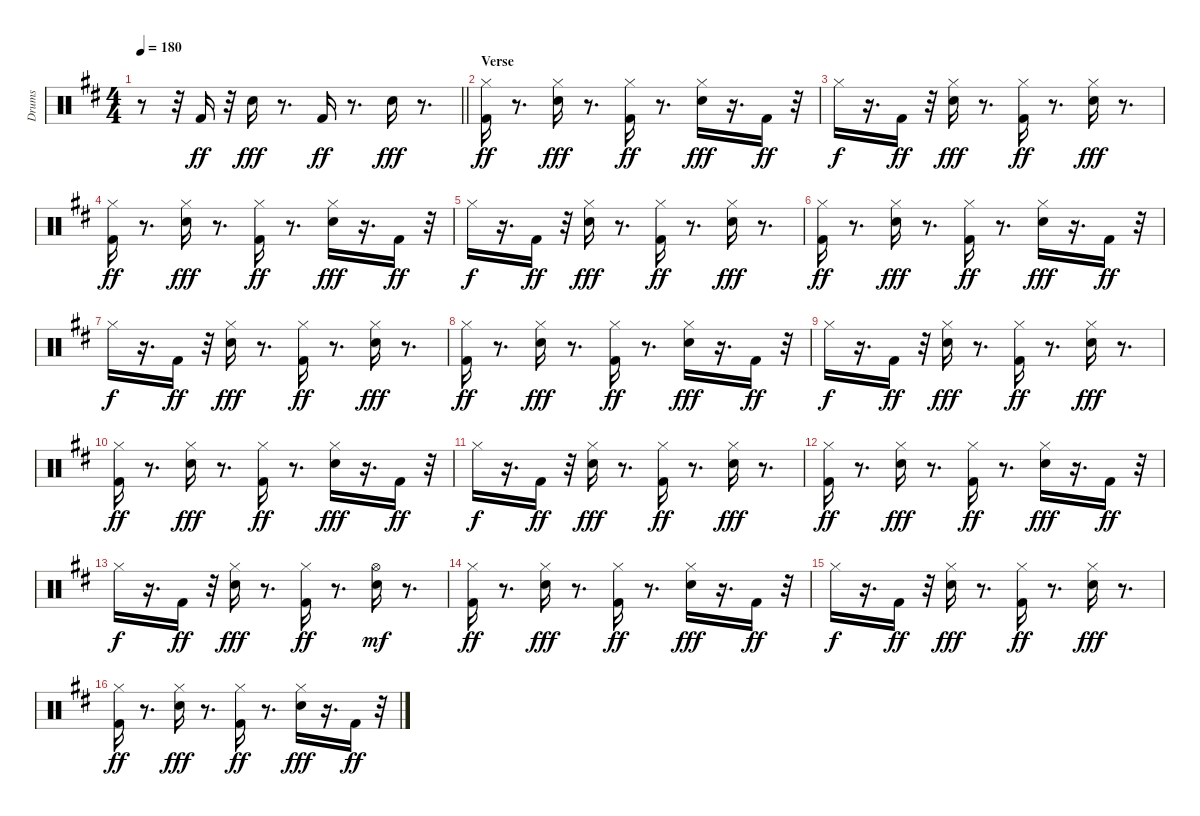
\track ("Drums" "Drums") {instrument percussion}
\staff {score}
\articulation defaults
\ts (4 4)
\tempo 180
\clef neutral
\barLineRight lightlight
\ks bminor
r.8{dy ff} r.32 "Kick (hit) 2".16 r.32 "Snare (hit) 2".16{dy fff} r.8{d} "Kick (hit) 2".16{dy ff} r.8{d} "Snare (hit) 2".16{dy fff} r.8{d} |
\section ("" "Verse")
("Kick (hit) 2" "Hi-Hat (closed)").16{dy ff} r.8{d} ("Snare (hit) 2" "Hi-Hat (closed)").16{dy fff} r.8{d} ("Kick (hit) 2" "Hi-Hat (closed)").16{dy ff} r.8{d} ("Snare (hit) 2" "Hi-Hat (closed)").16{dy fff} r.16{d} "Kick (hit) 2".16{dy ff} r.32 |
"Hi-Hat (closed)".16{dy f} r.16{d} "Kick (hit) 2".16{dy ff} r.32 ("Snare (hit) 2" "Hi-Hat (closed)").16{dy fff} r.8{d} ("Kick (hit) 2" "Hi-Hat (closed)").16{dy ff} r.8{d} ("Snare (hit) 2" "Hi-Hat (closed)").16{dy fff} r.8{d} |
("Kick (hit) 2" "Hi-Hat (closed)").16{dy ff} r.8{d} ("Snare (hit) 2" "Hi-Hat (closed)").16{dy fff} r.8{d} ("Kick (hit) 2" "Hi-Hat (closed)").16{dy ff} r.8{d} ("Snare (hit) 2" "Hi-Hat (closed)").16{dy fff} r.16{d} "Kick (hit) 2".16{dy ff} r.32 |
"Hi-Hat (closed)".16{dy f} r.16{d} "Kick (hit) 2".16{dy ff} r.32 ("Snare (hit) 2" "Hi-Hat (closed)").16{dy fff} r.8{d} ("Kick (hit) 2" "Hi-Hat (closed)").16{dy ff} r.8{d} ("Snare (hit) 2" "Hi-Hat (closed)").16{dy fff} r.8{d} |
("Kick (hit) 2" "Hi-Hat (closed)").16{dy ff} r.8{d} ("Snare (hit) 2" "Hi-Hat (closed)").16{dy fff} r.8{d} ("Kick (hit) 2" "Hi-Hat (closed)").16{dy ff} r.8{d} ("Snare (hit) 2" "Hi-Hat (closed)").16{dy fff} r.16{d} "Kick (hit) 2".16{dy ff} r.32 |
"Hi-Hat (closed)".16{dy f} r.16{d} "Kick (hit) 2".16{dy ff} r.32 ("Snare (hit) 2" "Hi-Hat (closed)").16{dy fff} r.8{d} ("Kick (hit) 2" "Hi-Hat (closed)").16{dy ff} r.8{d} ("Snare (hit) 2" "Hi-Hat (closed)").16{dy fff} r.8{d} |
("Kick (hit) 2" "Hi-Hat (closed)").16{dy ff} r.8{d} ("Snare (hit) 2" "Hi-Hat (closed)").16{dy fff} r.8{d} ("Kick (hit) 2" "Hi-Hat (closed)").16{dy ff} r.8{d} ("Snare (hit) 2" "Hi-Hat (closed)").16{dy fff} r.16{d} "Kick (hit) 2".16{dy ff} r.32 |
"Hi-Hat (closed)".16{dy f} r.16{d} "Kick (hit) 2".16{dy ff} r.32 ("Snare (hit) 2" "Hi-Hat (closed)").16{dy fff} r.8{d} ("Kick (hit) 2" "Hi-Hat (closed)").16{dy ff} r.8{d} ("Snare (hit) 2" "Hi-Hat (closed)").16{dy fff} r.8{d} |
("Kick (hit) 2" "Hi-Hat (closed)").16{dy ff} r.8{d} ("Snare (hit) 2" "Hi-Hat (closed)").16{dy fff} r.8{d} ("Kick (hit) 2" "Hi-Hat (closed)").16{dy ff} r.8{d} ("Snare (hit) 2" "Hi-Hat (closed)").16{dy fff} r.16{d} "Kick (hit) 2".16{dy ff} r.32 |
"Hi-Hat (closed)".16{dy f} r.16{d} "Kick (hit) 2".16{dy ff} r.32 ("Snare (hit) 2" "Hi-Hat (closed)").16{dy fff} r.8{d} ("Kick (hit) 2" "Hi-Hat (closed)").16{dy ff} r.8{d} ("Snare (hit) 2" "Hi-Hat (closed)").16{dy fff} r.8{d} |
("Kick (hit) 2" "Hi-Hat (closed)").16{dy ff} r.8{d} ("Snare (hit) 2" "Hi-Hat (closed)").16{dy fff} r.8{d} ("Kick (hit) 2" "Hi-Hat (closed)").16{dy ff} r.8{d} ("Snare (hit) 2" "Hi-Hat (closed)").16{dy fff} r.16{d} "Kick (hit) 2".16{dy ff} r.32 |
"Hi-Hat (closed)".16{dy f} r.16{d} "Kick (hit) 2".16{dy ff} r.32 ("Snare (hit) 2" "Hi-Hat (closed)").16{dy fff} r.8{d} ("Kick (hit) 2" "Hi-Hat (closed)").16{dy ff} r.8{d} ("Snare (hit) 2" "Hi-Hat (open)").16{dy mf} r.8{d} |
("Kick (hit) 2" "Hi-Hat (closed)").16{dy ff} r.8{d} ("Snare (hit) 2" "Hi-Hat (closed)").16{dy fff} r.8{d} ("Kick (hit) 2" "Hi-Hat (closed)").16{dy ff} r.8{d} ("Snare (hit) 2" "Hi-Hat (closed)").16{dy fff} r.16{d} "Kick (hit) 2".16{dy ff} r.32 |
"Hi-Hat (closed)".16{dy f} r.16{d} "Kick (hit) 2".16{dy ff} r.32 ("Snare (hit) 2" "Hi-Hat (closed)").16{dy fff} r.8{d} ("Kick (hit) 2" "Hi-Hat (closed)").16{dy ff} r.8{d} ("Snare (hit) 2" "Hi-Hat (closed)").16{dy fff} r.8{d} |
("Kick (hit) 2" "Hi-Hat (closed)").16{dy ff} r.8{d} ("Snare (hit) 2" "Hi-Hat (closed)").16{dy fff} r.8{d} ("Kick (hit) 2" "Hi-Hat (closed)").16{dy ff} r.8{d} ("Snare (hit) 2" "Hi-Hat (closed)").16{dy fff} r.16{d} "Kick (hit) 2".16{dy ff} r.32
